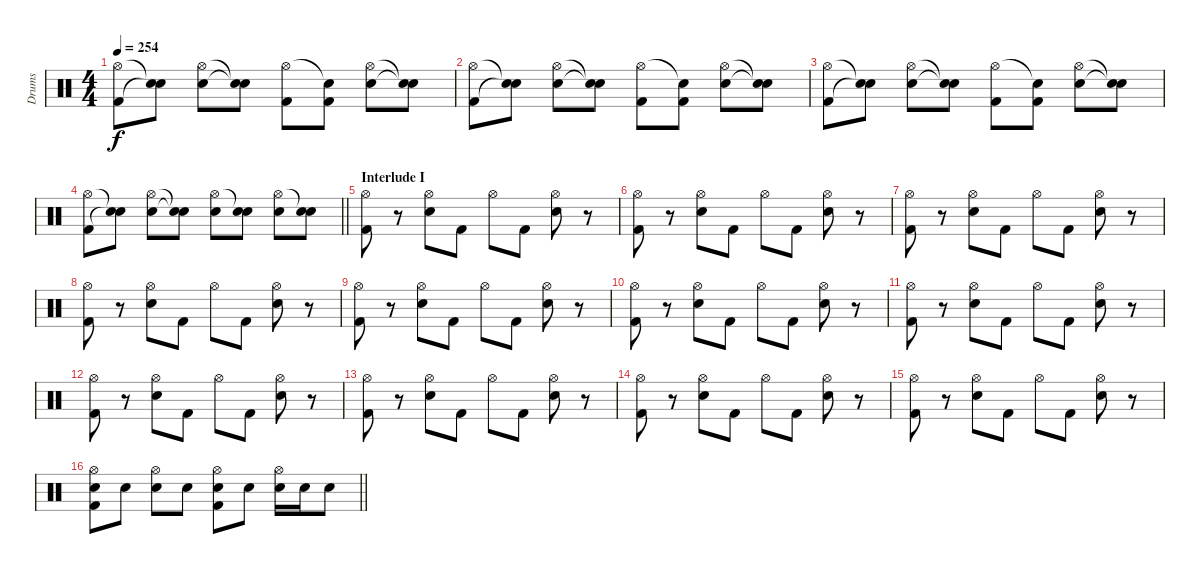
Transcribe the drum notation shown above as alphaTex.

\track ("Drums" "Drums") {instrument percussion}
\staff {score}
\articulation defaults
\ts (4 4)
\tempo 254
\clef neutral
\ks c
("Hi-Hat (open)" "Kick (hit) 2").8{dy f} ("Snare (hit)"{t} "Snare (hit)"{t}).8 ("Hi-Hat (open)" "Electric Snare (hit)").8 ("Snare (hit)"{t} "Snare (hit)"{t}).8 ("Hi-Hat (open)" "Kick (hit) 2").8 ("Snare (hit)"{t} "Kick (hit) 2").8 ("Hi-Hat (open)" "Electric Snare (hit)").8 ("Snare (hit)"{t} "Snare (hit)"{t}).8 |
("Hi-Hat (open)" "Kick (hit) 2").8 ("Snare (hit)"{t} "Snare (hit)"{t}).8 ("Hi-Hat (open)" "Electric Snare (hit)").8 ("Snare (hit)"{t} "Snare (hit)"{t}).8 ("Hi-Hat (open)" "Kick (hit) 2").8 ("Snare (hit)"{t} "Kick (hit) 2").8 ("Hi-Hat (open)" "Electric Snare (hit)").8 ("Snare (hit)"{t} "Snare (hit)"{t}).8 |
("Hi-Hat (open)" "Kick (hit) 2").8 ("Snare (hit)"{t} "Snare (hit)"{t}).8 ("Hi-Hat (open)" "Electric Snare (hit)").8 ("Snare (hit)"{t} "Snare (hit)"{t}).8 ("Hi-Hat (open)" "Kick (hit) 2").8 ("Snare (hit)"{t} "Kick (hit) 2").8 ("Hi-Hat (open)" "Electric Snare (hit)").8 ("Snare (hit)"{t} "Snare (hit)"{t}).8 |
\barLineRight lightlight
("Hi-Hat (open)" "Kick (hit) 2").8 ("Snare (hit)"{t} "Snare (hit)"{t}).8 ("Hi-Hat (open)" "Electric Snare (hit)").8 ("Snare (hit)"{t} "Snare (hit)"{t}).8 ("Hi-Hat (open)" "Electric Snare (hit)").8 ("Snare (hit)"{t} "Electric Snare (hit)").8 ("Hi-Hat (open)" "Electric Snare (hit)").8 ("Snare (hit)"{t} "Electric Snare (hit)").8 |
\section ("" "Interlude I")
("Hi-Hat (open)" "Kick (hit) 2").8 r.8 ("Hi-Hat (open)" "Electric Snare (hit)").8 "Kick (hit) 2".8 "Hi-Hat (open)".8 "Kick (hit) 2".8 ("Hi-Hat (open)" "Electric Snare (hit)").8 r.8 |
("Hi-Hat (open)" "Kick (hit) 2").8 r.8 ("Hi-Hat (open)" "Electric Snare (hit)").8 "Kick (hit) 2".8 "Hi-Hat (open)".8 "Kick (hit) 2".8 ("Hi-Hat (open)" "Electric Snare (hit)").8 r.8 |
("Hi-Hat (open)" "Kick (hit) 2").8 r.8 ("Hi-Hat (open)" "Electric Snare (hit)").8 "Kick (hit) 2".8 "Hi-Hat (open)".8 "Kick (hit) 2".8 ("Hi-Hat (open)" "Electric Snare (hit)").8 r.8 |
("Hi-Hat (open)" "Kick (hit) 2").8 r.8 ("Hi-Hat (open)" "Electric Snare (hit)").8 "Kick (hit) 2".8 "Hi-Hat (open)".8 "Kick (hit) 2".8 ("Hi-Hat (open)" "Electric Snare (hit)").8 r.8 |
("Hi-Hat (open)" "Kick (hit) 2").8 r.8 ("Hi-Hat (open)" "Electric Snare (hit)").8 "Kick (hit) 2".8 "Hi-Hat (open)".8 "Kick (hit) 2".8 ("Hi-Hat (open)" "Electric Snare (hit)").8 r.8 |
("Hi-Hat (open)" "Kick (hit) 2").8 r.8 ("Hi-Hat (open)" "Electric Snare (hit)").8 "Kick (hit) 2".8 "Hi-Hat (open)".8 "Kick (hit) 2".8 ("Hi-Hat (open)" "Electric Snare (hit)").8 r.8 |
("Hi-Hat (open)" "Kick (hit) 2").8 r.8 ("Hi-Hat (open)" "Electric Snare (hit)").8 "Kick (hit) 2".8 "Hi-Hat (open)".8 "Kick (hit) 2".8 ("Hi-Hat (open)" "Electric Snare (hit)").8 r.8 |
("Hi-Hat (open)" "Kick (hit) 2").8 r.8 ("Hi-Hat (open)" "Electric Snare (hit)").8 "Kick (hit) 2".8 "Hi-Hat (open)".8 "Kick (hit) 2".8 ("Hi-Hat (open)" "Electric Snare (hit)").8 r.8 |
("Hi-Hat (open)" "Kick (hit) 2").8 r.8 ("Hi-Hat (open)" "Electric Snare (hit)").8 "Kick (hit) 2".8 "Hi-Hat (open)".8 "Kick (hit) 2".8 ("Hi-Hat (open)" "Electric Snare (hit)").8 r.8 |
("Hi-Hat (open)" "Kick (hit) 2").8 r.8 ("Hi-Hat (open)" "Electric Snare (hit)").8 "Kick (hit) 2".8 "Hi-Hat (open)".8 "Kick (hit) 2".8 ("Hi-Hat (open)" "Electric Snare (hit)").8 r.8 |
("Hi-Hat (open)" "Kick (hit) 2").8 r.8 ("Hi-Hat (open)" "Electric Snare (hit)").8 "Kick (hit) 2".8 "Hi-Hat (open)".8 "Kick (hit) 2".8 ("Hi-Hat (open)" "Electric Snare (hit)").8 r.8 |
\barLineRight lightlight
("Hi-Hat (open)" "Electric Snare (hit)" "Kick (hit) 2").8 "Electric Snare (hit)".8 ("Hi-Hat (open)" "Electric Snare (hit)").8 "Electric Snare (hit)".8 ("Hi-Hat (open)" "Electric Snare (hit)" "Kick (hit) 2").8 "Electric Snare (hit)".8 ("Hi-Hat (open)" "Electric Snare (hit)").16 "Electric Snare (hit)".16 "Electric Snare (hit)".8
